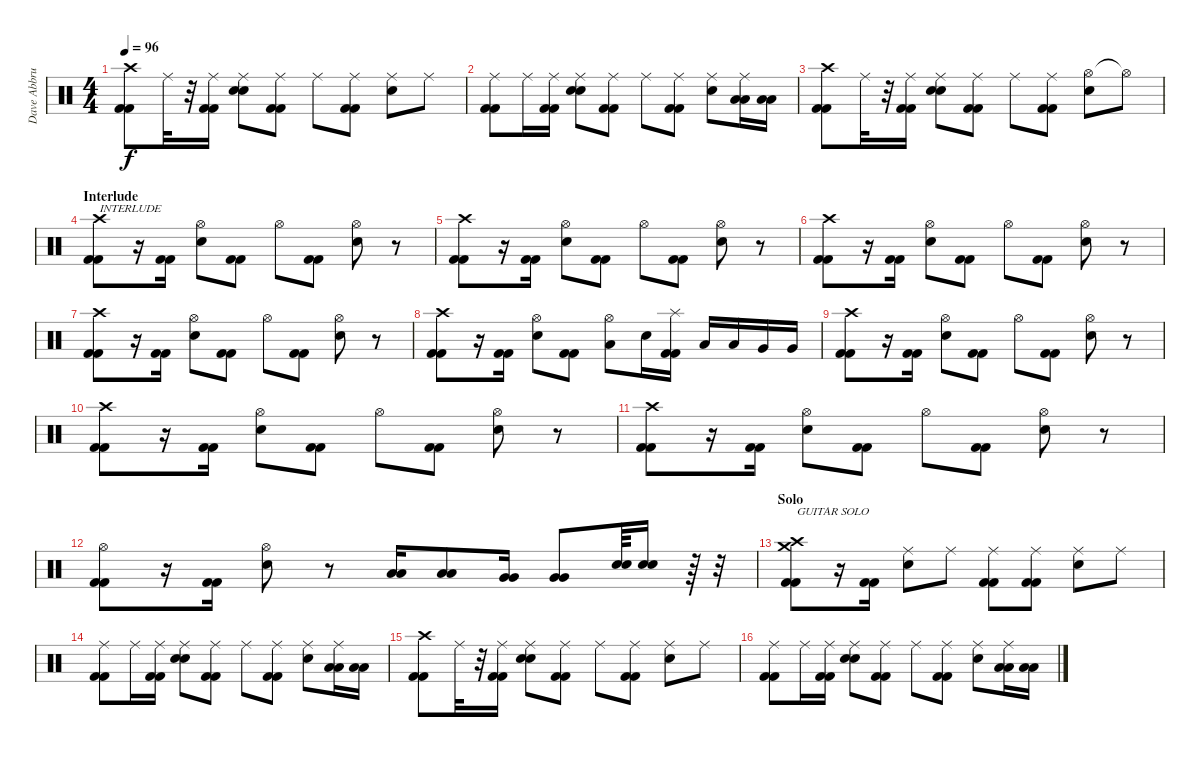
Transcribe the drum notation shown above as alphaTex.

\track ("Dave Abbruzzese" "Dave Abbru") {instrument percussion}
\staff {score}
\articulation defaults
\ts (4 4)
\tempo 96
\clef neutral
\ks c
("Crash high (hit)" "Kick (hit) 2" "Kick (hit) 2").8{dy f} "Ride (middle)".32 r.32 ("Ride (middle)" "Kick (hit) 2" "Kick (hit) 2").16 ("Ride (middle)" "Electric Snare (hit)" "Electric Snare (hit)").8 ("Ride (middle)" "Kick (hit) 2" "Kick (hit) 2").8 "Ride (middle)".8 ("Ride (middle)" "Kick (hit) 2" "Kick (hit) 2").8 ("Ride (middle)" "Electric Snare (hit)").8 "Ride (middle)".8 |
("Ride (middle)" "Kick (hit) 2" "Kick (hit) 2").8 "Ride (middle)".16 ("Ride (middle)" "Kick (hit) 2" "Kick (hit) 2").16 ("Ride (middle)" "Electric Snare (hit)" "Electric Snare (hit)").8 ("Ride (middle)" "Kick (hit) 2" "Kick (hit) 2").8 "Ride (middle)".8 ("Ride (middle)" "Kick (hit) 2" "Kick (hit) 2").8 ("Ride (middle)" "Electric Snare (hit)").8 ("Ride (middle)" "Low Tom (hit)" "Low Tom (hit)").16 ("Low Tom (hit)" "Low Tom (hit)").16 |
("Crash high (hit)" "Kick (hit) 2" "Kick (hit) 2").8 "Ride (middle)".32 r.32 ("Ride (middle)" "Kick (hit) 2" "Kick (hit) 2").16 ("Ride (middle)" "Electric Snare (hit)" "Electric Snare (hit)").8 ("Ride (middle)" "Kick (hit) 2" "Kick (hit) 2").8 "Ride (middle)".8 ("Ride (middle)" "Kick (hit) 2" "Kick (hit) 2").8 ("Hi-Hat (open)" "Electric Snare (hit)").8 "Hi-Hat (open)"{t}.8 |
\section ("" "Interlude")
("Crash high (hit)" "Kick (hit) 2" "Kick (hit) 2").8{txt "INTERLUDE"} r.16 ("Kick (hit) 2" "Kick (hit) 2").16 ("Hi-Hat (open)" "Electric Snare (hit)").8 ("Kick (hit) 2" "Kick (hit) 2").8 "Hi-Hat (open)".8 ("Kick (hit) 2" "Kick (hit) 2").8 ("Hi-Hat (open)" "Electric Snare (hit)").8 r.8 |
("Crash high (hit)" "Kick (hit) 2" "Kick (hit) 2").8 r.16 ("Kick (hit) 2" "Kick (hit) 2").16 ("Hi-Hat (open)" "Electric Snare (hit)").8 ("Kick (hit) 2" "Kick (hit) 2").8 "Hi-Hat (open)".8 ("Kick (hit) 2" "Kick (hit) 2").8 ("Hi-Hat (open)" "Electric Snare (hit)").8 r.8 |
("Crash high (hit)" "Kick (hit) 2" "Kick (hit) 2").8 r.16 ("Kick (hit) 2" "Kick (hit) 2").16 ("Hi-Hat (open)" "Electric Snare (hit)").8 ("Kick (hit) 2" "Kick (hit) 2").8 "Hi-Hat (open)".8 ("Kick (hit) 2" "Kick (hit) 2").8 ("Hi-Hat (open)" "Electric Snare (hit)").8 r.8 |
("Crash high (hit)" "Kick (hit) 2" "Kick (hit) 2").8 r.16 ("Kick (hit) 2" "Kick (hit) 2").16 ("Hi-Hat (open)" "Electric Snare (hit)").8 ("Kick (hit) 2" "Kick (hit) 2").8 "Hi-Hat (open)".8 ("Kick (hit) 2" "Kick (hit) 2").8 ("Hi-Hat (open)" "Electric Snare (hit)").8 r.8 |
("Crash high (hit)" "Kick (hit) 2" "Kick (hit) 2").8 r.16 ("Kick (hit) 2" "Kick (hit) 2").16 ("Hi-Hat (open)" "Electric Snare (hit)").8 ("Kick (hit) 2" "Kick (hit) 2").8 ("Hi-Hat (open)" "Low Tom (hit)").8 "Electric Snare (hit)".16 ("Splash (hit)" "Kick (hit) 2" "Kick (hit) 2").16 "Low Tom (hit)".16 "Low Tom (hit)".16 "Very Low Tom (hit)".16 "Very Low Tom (hit)".16 |
("Crash high (hit)" "Kick (hit) 2" "Kick (hit) 2").8 r.16 ("Kick (hit) 2" "Kick (hit) 2").16 ("Hi-Hat (open)" "Electric Snare (hit)").8 ("Kick (hit) 2" "Kick (hit) 2").8 "Hi-Hat (open)".8 ("Kick (hit) 2" "Kick (hit) 2").8 ("Hi-Hat (open)" "Electric Snare (hit)").8 r.8 |
("Crash high (hit)" "Kick (hit) 2" "Kick (hit) 2").8 r.16 ("Kick (hit) 2" "Kick (hit) 2").16 ("Hi-Hat (open)" "Electric Snare (hit)").8 ("Kick (hit) 2" "Kick (hit) 2").8 "Hi-Hat (open)".8 ("Kick (hit) 2" "Kick (hit) 2").8 ("Hi-Hat (open)" "Electric Snare (hit)").8 r.8 |
("Crash high (hit)" "Kick (hit) 2" "Kick (hit) 2").8 r.16 ("Kick (hit) 2" "Kick (hit) 2").16 ("Hi-Hat (open)" "Electric Snare (hit)").8 ("Kick (hit) 2" "Kick (hit) 2").8 "Hi-Hat (open)".8 ("Kick (hit) 2" "Kick (hit) 2").8 ("Hi-Hat (open)" "Electric Snare (hit)").8 r.8 |
("Hi-Hat (open)" "Kick (hit) 2" "Kick (hit) 2").8 r.16 ("Kick (hit) 2" "Kick (hit) 2").16 ("Hi-Hat (open)" "Electric Snare (hit)").8 r.8 ("Low Tom (hit)" "Low Tom (hit)").16 ("Low Tom (hit)" "Low Tom (hit)").8 ("Very Low Tom (hit)" "Very Low Tom (hit)").16 ("Very Low Tom (hit)" "Very Low Tom (hit)").8 ("Electric Snare (hit)" "Electric Snare (hit)").64 ("Electric Snare (hit)" "Electric Snare (hit)").16 r.64 r.32 |
\section ("" "Solo")
("Crash medium (hit)" "Crash high (hit)" "Kick (hit) 2" "Kick (hit) 2").8{txt "GUITAR SOLO"} r.16 ("Kick (hit) 2" "Kick (hit) 2").16 ("Ride (middle)" "Electric Snare (hit)").8 "Ride (middle)".8 ("Ride (middle)" "Kick (hit) 2" "Kick (hit) 2").8 ("Ride (middle)" "Kick (hit) 2" "Kick (hit) 2").8 ("Ride (middle)" "Electric Snare (hit)").8 "Ride (middle)".8 |
("Ride (middle)" "Kick (hit) 2" "Kick (hit) 2").8 "Ride (middle)".16 ("Ride (middle)" "Kick (hit) 2" "Kick (hit) 2").16 ("Ride (middle)" "Electric Snare (hit)" "Electric Snare (hit)").8 ("Ride (middle)" "Kick (hit) 2" "Kick (hit) 2").8 "Ride (middle)".8 ("Ride (middle)" "Kick (hit) 2" "Kick (hit) 2").8 ("Ride (middle)" "Electric Snare (hit)").8 ("Ride (middle)" "Low Tom (hit)" "Low Tom (hit)").16 ("Low Tom (hit)" "Low Tom (hit)").16 |
("Crash high (hit)" "Kick (hit) 2" "Kick (hit) 2").8 "Ride (middle)".32 r.32 ("Ride (middle)" "Kick (hit) 2" "Kick (hit) 2").16 ("Ride (middle)" "Electric Snare (hit)" "Electric Snare (hit)").8 ("Ride (middle)" "Kick (hit) 2" "Kick (hit) 2").8 "Ride (middle)".8 ("Ride (middle)" "Kick (hit) 2" "Kick (hit) 2").8 ("Ride (middle)" "Electric Snare (hit)").8 "Ride (middle)".8 |
("Ride (middle)" "Kick (hit) 2" "Kick (hit) 2").8 "Ride (middle)".16 ("Ride (middle)" "Kick (hit) 2" "Kick (hit) 2").16 ("Ride (middle)" "Electric Snare (hit)" "Electric Snare (hit)").8 ("Ride (middle)" "Kick (hit) 2" "Kick (hit) 2").8 "Ride (middle)".8 ("Ride (middle)" "Kick (hit) 2" "Kick (hit) 2").8 ("Ride (middle)" "Electric Snare (hit)").8 ("Ride (middle)" "Low Tom (hit)" "Low Tom (hit)").16 ("Low Tom (hit)" "Low Tom (hit)").16
